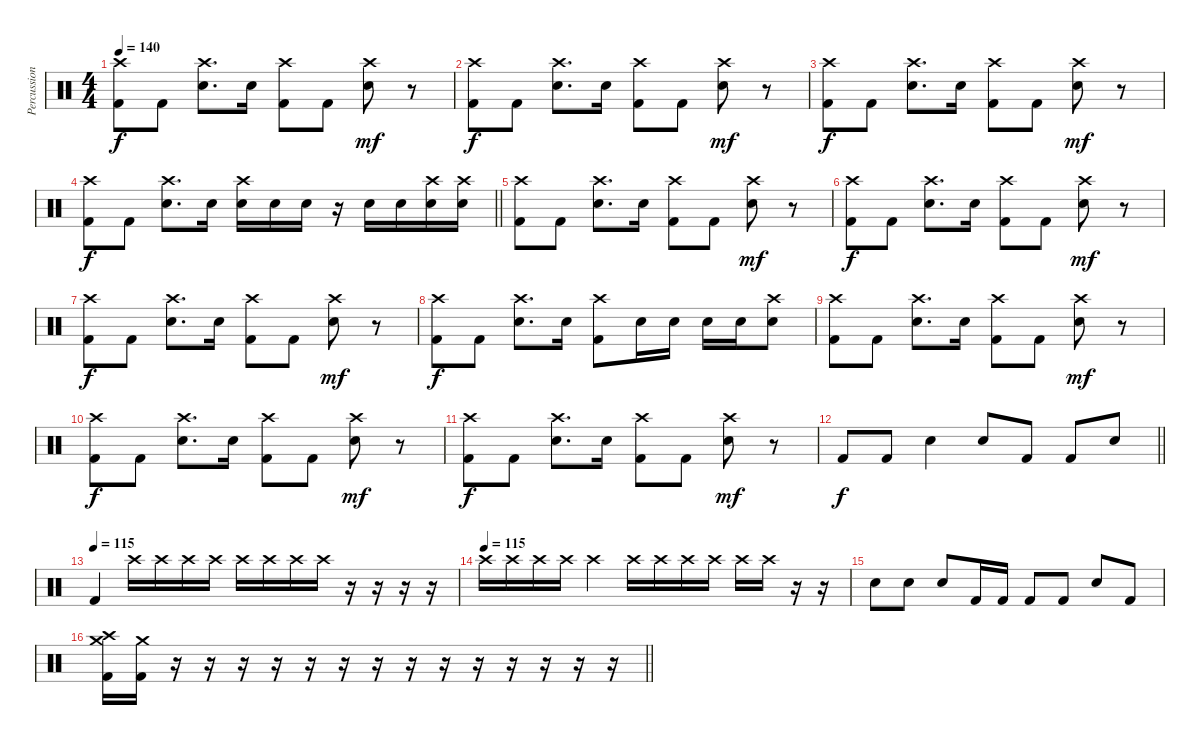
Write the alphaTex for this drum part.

\track ("Percussion" "Percussion") {instrument percussion}
\staff {score}
\articulation defaults
\ts (4 4)
\tempo 140
\clef neutral
\ks c
("Kick (hit) 2" "Crash high (hit)").8{dy f} "Kick (hit) 2".8 ("Electric Snare (hit)" "Crash high (hit)").8{d} "Electric Snare (hit)".16 ("Kick (hit) 2" "Crash high (hit)").8 "Kick (hit) 2".8 ("Electric Snare (hit)" "Crash high (hit)").8{dy mf} r.8 |
("Kick (hit) 2" "Crash high (hit)").8{dy f} "Kick (hit) 2".8 ("Electric Snare (hit)" "Crash high (hit)").8{d} "Electric Snare (hit)".16 ("Kick (hit) 2" "Crash high (hit)").8 "Kick (hit) 2".8 ("Electric Snare (hit)" "Crash high (hit)").8{dy mf} r.8 |
("Kick (hit) 2" "Crash high (hit)").8{dy f} "Kick (hit) 2".8 ("Electric Snare (hit)" "Crash high (hit)").8{d} "Electric Snare (hit)".16 ("Kick (hit) 2" "Crash high (hit)").8 "Kick (hit) 2".8 ("Electric Snare (hit)" "Crash high (hit)").8{dy mf} r.8 |
\barLineRight lightlight
("Kick (hit) 2" "Crash high (hit)").8{dy f} "Kick (hit) 2".8 ("Electric Snare (hit)" "Crash high (hit)").8{d} "Electric Snare (hit)".16 ("Electric Snare (hit)" "Crash high (hit)").16 "Electric Snare (hit)".16 "Electric Snare (hit)".16 r.16 "Electric Snare (hit)".16 "Electric Snare (hit)".16 ("Electric Snare (hit)" "Crash high (hit)").16 ("Electric Snare (hit)" "Crash high (hit)").16 |
("Kick (hit) 2" "Crash high (hit)").8 "Kick (hit) 2".8 ("Electric Snare (hit)" "Crash high (hit)").8{d} "Electric Snare (hit)".16 ("Kick (hit) 2" "Crash high (hit)").8 "Kick (hit) 2".8 ("Electric Snare (hit)" "Crash high (hit)").8{dy mf} r.8 |
("Kick (hit) 2" "Crash high (hit)").8{dy f} "Kick (hit) 2".8 ("Electric Snare (hit)" "Crash high (hit)").8{d} "Electric Snare (hit)".16 ("Kick (hit) 2" "Crash high (hit)").8 "Kick (hit) 2".8 ("Electric Snare (hit)" "Crash high (hit)").8{dy mf} r.8 |
("Kick (hit) 2" "Crash high (hit)").8{dy f} "Kick (hit) 2".8 ("Electric Snare (hit)" "Crash high (hit)").8{d} "Electric Snare (hit)".16 ("Kick (hit) 2" "Crash high (hit)").8 "Kick (hit) 2".8 ("Electric Snare (hit)" "Crash high (hit)").8{dy mf} r.8 |
("Kick (hit) 2" "Crash high (hit)").8{dy f} "Kick (hit) 2".8 ("Electric Snare (hit)" "Crash high (hit)").8{d} "Electric Snare (hit)".16 ("Kick (hit) 2" "Crash high (hit)").8 "Electric Snare (hit)".16 "Electric Snare (hit)".16 "Electric Snare (hit)".16 "Electric Snare (hit)".16 ("Electric Snare (hit)" "Crash high (hit)").8 |
("Kick (hit) 2" "Crash high (hit)").8 "Kick (hit) 2".8 ("Electric Snare (hit)" "Crash high (hit)").8{d} "Electric Snare (hit)".16 ("Kick (hit) 2" "Crash high (hit)").8 "Kick (hit) 2".8 ("Electric Snare (hit)" "Crash high (hit)").8{dy mf} r.8 |
("Kick (hit) 2" "Crash high (hit)").8{dy f} "Kick (hit) 2".8 ("Electric Snare (hit)" "Crash high (hit)").8{d} "Electric Snare (hit)".16 ("Kick (hit) 2" "Crash high (hit)").8 "Kick (hit) 2".8 ("Electric Snare (hit)" "Crash high (hit)").8{dy mf} r.8 |
("Kick (hit) 2" "Crash high (hit)").8{dy f} "Kick (hit) 2".8 ("Electric Snare (hit)" "Crash high (hit)").8{d} "Electric Snare (hit)".16 ("Kick (hit) 2" "Crash high (hit)").8 "Kick (hit) 2".8 ("Electric Snare (hit)" "Crash high (hit)").8{dy mf} r.8 |
\barLineRight lightlight "Kick (hit) 2".8{dy f} "Kick (hit) 2".8 "Electric Snare (hit)".4 "Electric Snare (hit)".8 "Kick (hit) 2".8 "Kick (hit) 2".8 "Electric Snare (hit)".8
|
\tempo (115)
"Kick (hit) 2".4 "Crash high (hit)".16 "Crash high (hit)".16 "Crash high (hit)".16 "Crash high (hit)".16 "Crash high (hit)".16 "Crash high (hit)".16 "Crash high (hit)".16 "Crash high (hit)".16 r.16 r.16 r.16 r.16 |
\tempo (115)
"Crash high (hit)".16 "Crash high (hit)".16 "Crash high (hit)".16 "Crash high (hit)".16 "Crash high (hit)".4 "Crash high (hit)".16 "Crash high (hit)".16 "Crash high (hit)".16 "Crash high (hit)".16 "Crash high (hit)".16 "Crash high (hit)".16 r.16 r.16 |
"Snare (hit)".8 "Snare (hit)".8 "Snare (hit)".8 "Kick (hit) 2".16 "Kick (hit) 2".16 "Kick (hit) 2".8 "Kick (hit) 2".8 "Snare (hit)".8 "Kick (hit) 2".8 |
\barLineRight lightlight
("Crash medium (hit)" "Crash high (hit)" "Kick (hit) 2").16 ("Crash medium (hit)" "Kick (hit) 2").16 r.16 r.16 r.16 r.16 r.16 r.16 r.16 r.16 r.16 r.16 r.16 r.16 r.16 r.16
